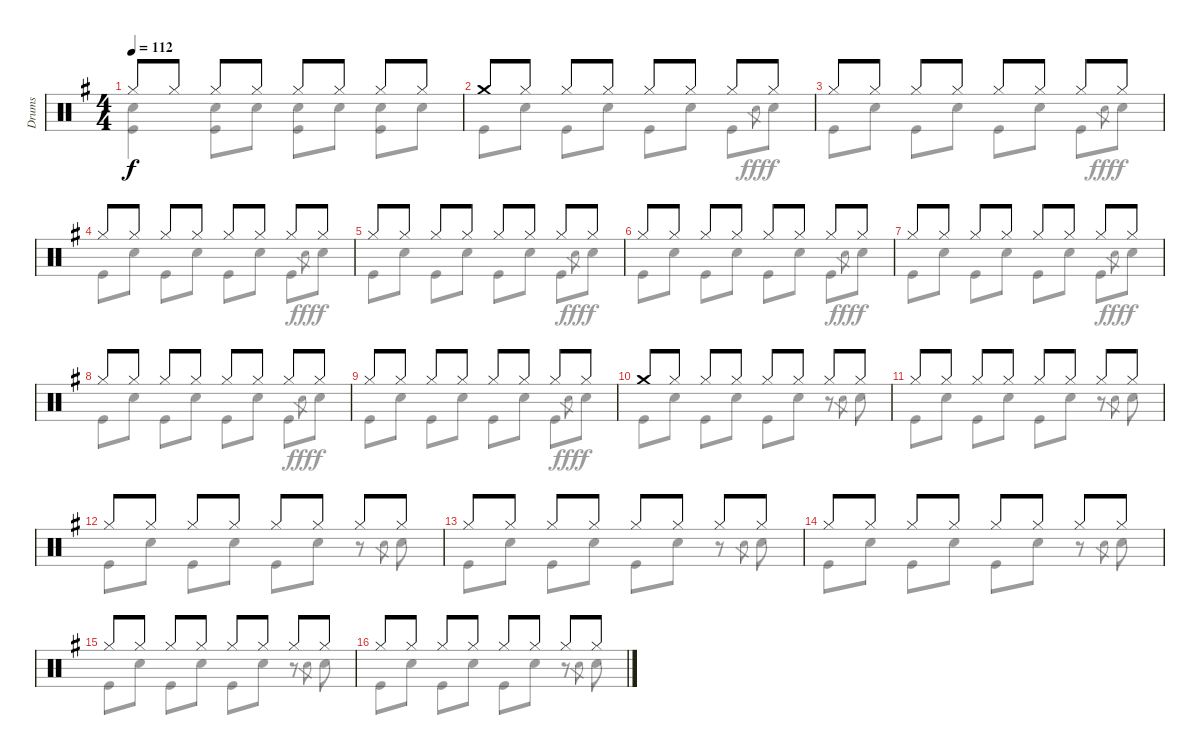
\track ("Drums" "Drums") {instrument percussion}
\staff {score}
\articulation defaults
\voice
\ts (4 4)
\tempo 112
\clef neutral
\ks g "Hi-Hat (closed)".8{dy f} "Hi-Hat (closed)".8 "Hi-Hat (closed)".8 "Hi-Hat (closed)".8 "Hi-Hat (closed)".8 "Hi-Hat (closed)".8 "Hi-Hat (closed)".8 "Hi-Hat (closed)".8
|
"Crash medium (hit)".8 "Hi-Hat (closed)".8 "Hi-Hat (closed)".8 "Hi-Hat (closed)".8 "Hi-Hat (closed)".8 "Hi-Hat (closed)".8 "Hi-Hat (closed)".8 "Hi-Hat (closed)".8 |
"Hi-Hat (closed)".8 "Hi-Hat (closed)".8 "Hi-Hat (closed)".8 "Hi-Hat (closed)".8 "Hi-Hat (closed)".8 "Hi-Hat (closed)".8 "Hi-Hat (closed)".8 "Hi-Hat (closed)".8 |
"Hi-Hat (closed)".8 "Hi-Hat (closed)".8 "Hi-Hat (closed)".8 "Hi-Hat (closed)".8 "Hi-Hat (closed)".8 "Hi-Hat (closed)".8 "Hi-Hat (closed)".8 "Hi-Hat (closed)".8 |
"Hi-Hat (closed)".8 "Hi-Hat (closed)".8 "Hi-Hat (closed)".8 "Hi-Hat (closed)".8 "Hi-Hat (closed)".8 "Hi-Hat (closed)".8 "Hi-Hat (closed)".8 "Hi-Hat (closed)".8 |
"Hi-Hat (closed)".8 "Hi-Hat (closed)".8 "Hi-Hat (closed)".8 "Hi-Hat (closed)".8 "Hi-Hat (closed)".8 "Hi-Hat (closed)".8 "Hi-Hat (closed)".8 "Hi-Hat (closed)".8 |
"Hi-Hat (closed)".8 "Hi-Hat (closed)".8 "Hi-Hat (closed)".8 "Hi-Hat (closed)".8 "Hi-Hat (closed)".8 "Hi-Hat (closed)".8 "Hi-Hat (closed)".8 "Hi-Hat (closed)".8 |
"Hi-Hat (closed)".8 "Hi-Hat (closed)".8 "Hi-Hat (closed)".8 "Hi-Hat (closed)".8 "Hi-Hat (closed)".8 "Hi-Hat (closed)".8 "Hi-Hat (closed)".8 "Hi-Hat (closed)".8 |
"Hi-Hat (closed)".8 "Hi-Hat (closed)".8 "Hi-Hat (closed)".8 "Hi-Hat (closed)".8 "Hi-Hat (closed)".8 "Hi-Hat (closed)".8 "Hi-Hat (closed)".8 "Hi-Hat (closed)".8 |
"Crash medium (hit)".8 "Hi-Hat (closed)".8 "Hi-Hat (closed)".8 "Hi-Hat (closed)".8 "Hi-Hat (closed)".8 "Hi-Hat (closed)".8 "Hi-Hat (closed)".8 "Hi-Hat (closed)".8 |
"Hi-Hat (closed)".8 "Hi-Hat (closed)".8 "Hi-Hat (closed)".8 "Hi-Hat (closed)".8 "Hi-Hat (closed)".8 "Hi-Hat (closed)".8 "Hi-Hat (closed)".8 "Hi-Hat (closed)".8 |
"Hi-Hat (closed)".8 "Hi-Hat (closed)".8 "Hi-Hat (closed)".8 "Hi-Hat (closed)".8 "Hi-Hat (closed)".8 "Hi-Hat (closed)".8 "Hi-Hat (closed)".8 "Hi-Hat (closed)".8 |
"Hi-Hat (closed)".8 "Hi-Hat (closed)".8 "Hi-Hat (closed)".8 "Hi-Hat (closed)".8 "Hi-Hat (closed)".8 "Hi-Hat (closed)".8 "Hi-Hat (closed)".8 "Hi-Hat (closed)".8 |
"Hi-Hat (closed)".8 "Hi-Hat (closed)".8 "Hi-Hat (closed)".8 "Hi-Hat (closed)".8 "Hi-Hat (closed)".8 "Hi-Hat (closed)".8 "Hi-Hat (closed)".8 "Hi-Hat (closed)".8 |
"Hi-Hat (closed)".8 "Hi-Hat (closed)".8 "Hi-Hat (closed)".8 "Hi-Hat (closed)".8 "Hi-Hat (closed)".8 "Hi-Hat (closed)".8 "Hi-Hat (closed)".8 "Hi-Hat (closed)".8 |
"Hi-Hat (closed)".8 "Hi-Hat (closed)".8 "Hi-Hat (closed)".8 "Hi-Hat (closed)".8 "Hi-Hat (closed)".8 "Hi-Hat (closed)".8 "Hi-Hat (closed)".8 "Hi-Hat (closed)".8
\voice
\clef neutral
\ottava regular
\simile none
\ks g
("Snare (hit) 2" "Kick (hit)").4{dy f} ("Snare (hit) 2" "Kick (hit)").8 "Snare (hit) 2".8 ("Snare (hit) 2" "Kick (hit)").8 "Snare (hit) 2".8 ("Snare (hit) 2" "Kick (hit)").8 "Snare (hit) 2".8 |
"Kick (hit)".8 "Snare (hit) 2".8 "Kick (hit)".8 "Snare (hit) 2".8 "Kick (hit)".8 "Snare (hit) 2".8 "Kick (hit)".8 "Snare (hit) 2".8{gr dy fff} "Snare (hit) 2".8{dy f} |
"Kick (hit)".8 "Snare (hit) 2".8 "Kick (hit)".8 "Snare (hit) 2".8 "Kick (hit)".8 "Snare (hit) 2".8 "Kick (hit)".8 "Snare (hit) 2".8{gr dy fff} "Snare (hit) 2".8{dy f} |
"Kick (hit)".8 "Snare (hit) 2".8 "Kick (hit)".8 "Snare (hit) 2".8 "Kick (hit)".8 "Snare (hit) 2".8 "Kick (hit)".8 "Snare (hit) 2".8{gr dy fff} "Snare (hit) 2".8{dy f} |
"Kick (hit)".8 "Snare (hit) 2".8 "Kick (hit)".8 "Snare (hit) 2".8 "Kick (hit)".8 "Snare (hit) 2".8 "Kick (hit)".8 "Snare (hit) 2".8{gr dy fff} "Snare (hit) 2".8{dy f} |
"Kick (hit)".8 "Snare (hit) 2".8 "Kick (hit)".8 "Snare (hit) 2".8 "Kick (hit)".8 "Snare (hit) 2".8 "Kick (hit)".8 "Snare (hit) 2".8{gr dy fff} "Snare (hit) 2".8{dy f} |
"Kick (hit)".8 "Snare (hit) 2".8 "Kick (hit)".8 "Snare (hit) 2".8 "Kick (hit)".8 "Snare (hit) 2".8 "Kick (hit)".8 "Snare (hit) 2".8{gr dy fff} "Snare (hit) 2".8{dy f} |
"Kick (hit)".8 "Snare (hit) 2".8 "Kick (hit)".8 "Snare (hit) 2".8 "Kick (hit)".8 "Snare (hit) 2".8 "Kick (hit)".8 "Snare (hit) 2".8{gr dy fff} "Snare (hit) 2".8{dy f} |
"Kick (hit)".8 "Snare (hit) 2".8 "Kick (hit)".8 "Snare (hit) 2".8 "Kick (hit)".8 "Snare (hit) 2".8 "Kick (hit)".8 "Snare (hit) 2".8{gr dy fff} "Snare (hit) 2".8{dy f} |
"Kick (hit)".8 "Snare (hit) 2".8 "Kick (hit)".8 "Snare (hit) 2".8 "Kick (hit)".8 "Snare (hit) 2".8 r.8 "Snare (hit) 2".8{gr} "Snare (hit) 2".8 |
"Kick (hit)".8 "Snare (hit) 2".8 "Kick (hit)".8 "Snare (hit) 2".8 "Kick (hit)".8 "Snare (hit) 2".8 r.8 "Snare (hit) 2".8{gr} "Snare (hit) 2".8 |
"Kick (hit)".8 "Snare (hit) 2".8 "Kick (hit)".8 "Snare (hit) 2".8 "Kick (hit)".8 "Snare (hit) 2".8 r.8 "Snare (hit) 2".8{gr} "Snare (hit) 2".8 |
"Kick (hit)".8 "Snare (hit) 2".8 "Kick (hit)".8 "Snare (hit) 2".8 "Kick (hit)".8 "Snare (hit) 2".8 r.8 "Snare (hit) 2".8{gr} "Snare (hit) 2".8 |
"Kick (hit)".8 "Snare (hit) 2".8 "Kick (hit)".8 "Snare (hit) 2".8 "Kick (hit)".8 "Snare (hit) 2".8 r.8 "Snare (hit) 2".8{gr} "Snare (hit) 2".8 |
"Kick (hit)".8 "Snare (hit) 2".8 "Kick (hit)".8 "Snare (hit) 2".8 "Kick (hit)".8 "Snare (hit) 2".8 r.8 "Snare (hit) 2".8{gr} "Snare (hit) 2".8 |
"Kick (hit)".8 "Snare (hit) 2".8 "Kick (hit)".8 "Snare (hit) 2".8 "Kick (hit)".8 "Snare (hit) 2".8 r.8 "Snare (hit) 2".8{gr} "Snare (hit) 2".8
